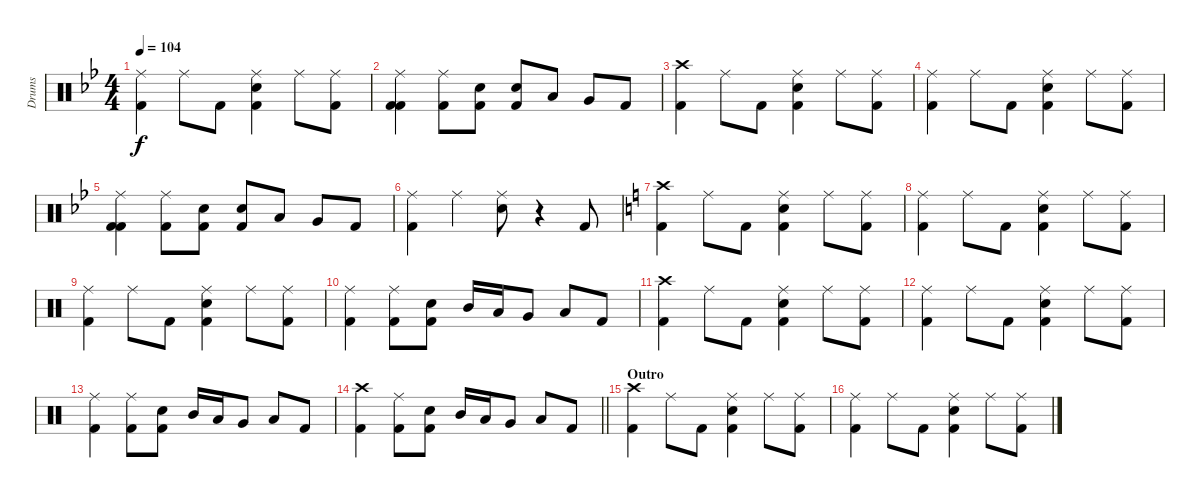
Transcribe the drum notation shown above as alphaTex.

\track ("Drums" "Drums") {instrument percussion}
\staff {score}
\articulation defaults
\ts (4 4)
\tempo 104
\clef neutral
\ks bb
("Ride (middle)" "Kick (hit) 2").4{dy f} "Ride (middle)".8 "Kick (hit) 2".8 ("Ride (middle)" "Snare (hit) 2" "Kick (hit) 2").4 "Ride (middle)".8 ("Ride (middle)" "Kick (hit) 2").8 |
("Ride (middle)" "Kick (hit) 2" "Kick (hit) 2").4 ("Ride (middle)" "Kick (hit) 2").8 ("Snare (hit) 2" "Kick (hit) 2").8 ("Snare (hit) 2" "Kick (hit) 2").8 "Low Tom (hit)".8 "Very Low Tom (hit)".8 "Kick (hit) 2".8 |
("Crash high (hit)" "Kick (hit) 2").4 "Ride (middle)".8 "Kick (hit) 2".8 ("Ride (middle)" "Snare (hit) 2" "Kick (hit) 2").4 "Ride (middle)".8 ("Ride (middle)" "Kick (hit) 2").8 |
("Ride (middle)" "Kick (hit) 2").4 "Ride (middle)".8 "Kick (hit) 2".8 ("Ride (middle)" "Snare (hit) 2" "Kick (hit) 2").4 "Ride (middle)".8 ("Ride (middle)" "Kick (hit) 2").8 |
("Ride (middle)" "Kick (hit) 2" "Kick (hit) 2").4 ("Ride (middle)" "Kick (hit) 2").8 ("Snare (hit) 2" "Kick (hit) 2").8 ("Snare (hit) 2" "Kick (hit) 2").8 "Low Tom (hit)".8 "Very Low Tom (hit)".8 "Kick (hit) 2".8 |
("Ride (middle)" "Kick (hit) 2").4 "Ride (middle)".4 ("Ride (middle)" "Snare (hit) 2").8 r.4 "Kick (hit) 2".8 |
\ks c
("Crash high (hit)" "Kick (hit) 2").4 "Ride (middle)".8 "Kick (hit) 2".8 ("Ride (middle)" "Snare (hit) 2" "Kick (hit) 2").4 "Ride (middle)".8 ("Ride (middle)" "Kick (hit) 2").8 |
("Ride (middle)" "Kick (hit) 2").4 "Ride (middle)".8 "Kick (hit) 2".8 ("Ride (middle)" "Snare (hit) 2" "Kick (hit) 2").4 "Ride (middle)".8 ("Ride (middle)" "Kick (hit) 2").8 |
("Ride (middle)" "Kick (hit) 2").4 "Ride (middle)".8 "Kick (hit) 2".8 ("Ride (middle)" "Snare (hit) 2" "Kick (hit) 2").4 "Ride (middle)".8 ("Ride (middle)" "Kick (hit) 2").8 |
("Ride (middle)" "Kick (hit) 2").4 ("Ride (middle)" "Kick (hit) 2").8 ("Snare (hit) 2" "Kick (hit) 2").8 "Mid Tom (hit)".16 "Low Tom (hit)".16 "Very Low Tom (hit)".8 "Low Floor Tom (hit)".8 "Kick (hit) 2".8 |
("Crash high (hit)" "Kick (hit) 2").4 "Ride (middle)".8 "Kick (hit) 2".8 ("Ride (middle)" "Snare (hit) 2" "Kick (hit) 2").4 "Ride (middle)".8 ("Ride (middle)" "Kick (hit) 2").8 |
("Ride (middle)" "Kick (hit) 2").4 "Ride (middle)".8 "Kick (hit) 2".8 ("Ride (middle)" "Snare (hit) 2" "Kick (hit) 2").4 "Ride (middle)".8 ("Ride (middle)" "Kick (hit) 2").8 |
("Ride (middle)" "Kick (hit) 2").4 ("Ride (middle)" "Kick (hit) 2").8 ("Snare (hit) 2" "Kick (hit) 2").8 "Mid Tom (hit)".16 "Low Tom (hit)".16 "Very Low Tom (hit)".8 "Low Floor Tom (hit)".8 "Kick (hit) 2".8 |
\barLineRight lightlight
("Crash high (hit)" "Kick (hit) 2").4 ("Ride (middle)" "Kick (hit) 2").8 ("Snare (hit) 2" "Kick (hit) 2").8 "Mid Tom (hit)".16 "Low Tom (hit)".16 "Very Low Tom (hit)".8 "Low Floor Tom (hit)".8 "Kick (hit) 2".8 |
\section ("" "Outro")
("Crash high (hit)" "Kick (hit) 2").4 "Ride (middle)".8 "Kick (hit) 2".8 ("Ride (middle)" "Snare (hit) 2" "Kick (hit) 2").4 "Ride (middle)".8 ("Ride (middle)" "Kick (hit) 2").8 |
("Ride (middle)" "Kick (hit) 2").4 "Ride (middle)".8 "Kick (hit) 2".8 ("Ride (middle)" "Snare (hit) 2" "Kick (hit) 2").4 "Ride (middle)".8 ("Ride (middle)" "Kick (hit) 2").8
